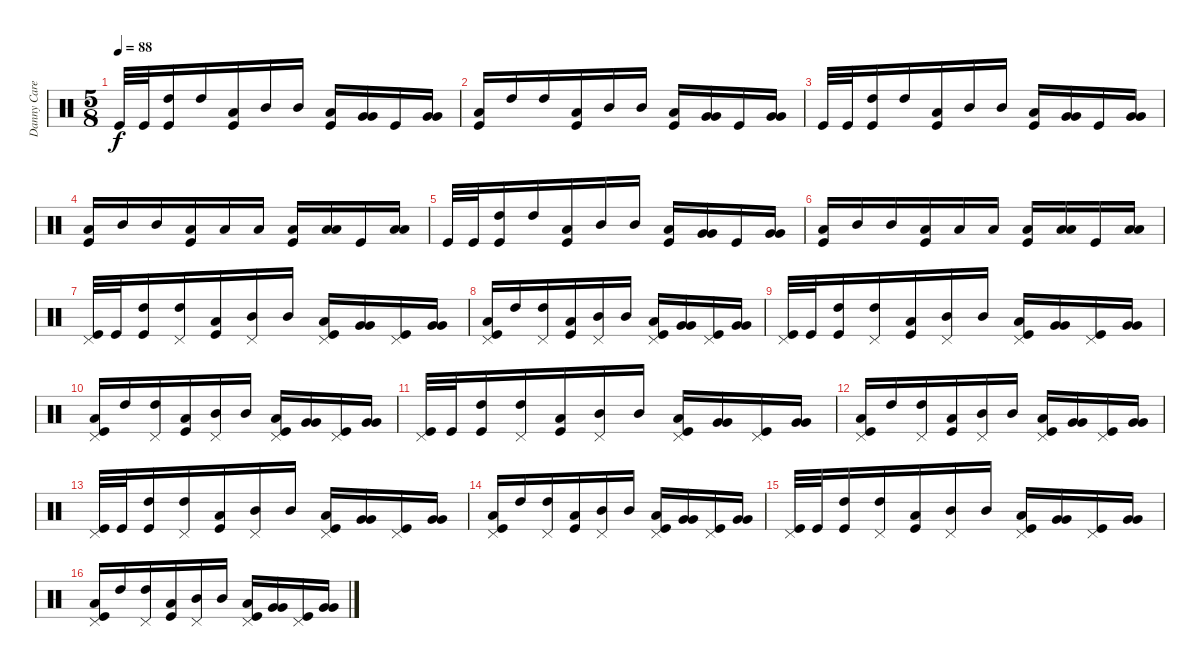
\track ("Danny Carey" "Danny Care") {instrument percussion}
\staff {score}
\articulation defaults
\ts (5 8)
\tempo 88
\clef neutral
\ks c "Kick (hit)".32{dy f} "Kick (hit)".32
("High Tom (hit)" "Kick (hit)").16 "High Tom (hit)".16 ("Low Floor Tom (hit)" "Kick (hit)").16 "Mid Tom (hit)".16 "Mid Tom (hit)".16 ("Low Floor Tom (hit)" "Kick (hit)").16 ("Very Low Tom (hit)" "Very Low Tom (hit)").16 "Kick (hit)".16 ("Very Low Tom (hit)" "Very Low Tom (hit)").16 |
("Low Floor Tom (hit)" "Kick (hit)").16 "High Tom (hit)".16 "High Tom (hit)".16 ("Low Floor Tom (hit)" "Kick (hit)").16 "Mid Tom (hit)".16 "Mid Tom (hit)".16 ("Low Floor Tom (hit)" "Kick (hit)").16 ("Very Low Tom (hit)" "Very Low Tom (hit)").16 "Kick (hit)".16 ("Very Low Tom (hit)" "Very Low Tom (hit)").16 |
"Kick (hit)".32 "Kick (hit)".32 ("High Tom (hit)" "Kick (hit)").16 "High Tom (hit)".16 ("Low Floor Tom (hit)" "Kick (hit)").16 "Mid Tom (hit)".16 "Mid Tom (hit)".16 ("Low Floor Tom (hit)" "Kick (hit)").16 ("Very Low Tom (hit)" "Very Low Tom (hit)").16 "Kick (hit)".16 ("Very Low Tom (hit)" "Very Low Tom (hit)").16 |
("Low Floor Tom (hit)" "Kick (hit)").16 "Mid Tom (hit)".16 "Mid Tom (hit)".16 ("Low Floor Tom (hit)" "Kick (hit)").16 "Low Tom (hit)".16 "Low Tom (hit)".16 ("Low Floor Tom (hit)" "Kick (hit)").16 ("Low Floor Tom (hit)" "Low Floor Tom (hit)").16 "Kick (hit)".16 ("Low Floor Tom (hit)" "Low Floor Tom (hit)").16 |
"Kick (hit)".32 "Kick (hit)".32 ("High Tom (hit)" "Kick (hit)").16 "High Tom (hit)".16 ("Low Floor Tom (hit)" "Kick (hit)").16 "Mid Tom (hit)".16 "Mid Tom (hit)".16 ("Low Floor Tom (hit)" "Kick (hit)").16 ("Very Low Tom (hit)" "Very Low Tom (hit)").16 "Kick (hit)".16 ("Very Low Tom (hit)" "Very Low Tom (hit)").16 |
("Low Floor Tom (hit)" "Kick (hit)").16 "Mid Tom (hit)".16 "Mid Tom (hit)".16 ("Low Floor Tom (hit)" "Kick (hit)").16 "Low Tom (hit)".16 "Low Tom (hit)".16 ("Low Floor Tom (hit)" "Kick (hit)").16 ("Low Floor Tom (hit)" "Low Floor Tom (hit)").16 "Kick (hit)".16 ("Low Floor Tom (hit)" "Low Floor Tom (hit)").16 |
("Pedal Hi-Hat (hit)" "Kick (hit)").32 "Kick (hit)".32 ("High Tom (hit)" "Kick (hit)").16 ("Pedal Hi-Hat (hit)" "High Tom (hit)").16 ("Low Floor Tom (hit)" "Kick (hit)").16 ("Pedal Hi-Hat (hit)" "Mid Tom (hit)").16 "Mid Tom (hit)".16 ("Pedal Hi-Hat (hit)" "Low Floor Tom (hit)" "Kick (hit)").16 ("Very Low Tom (hit)" "Very Low Tom (hit)").16 ("Pedal Hi-Hat (hit)" "Kick (hit)").16 ("Very Low Tom (hit)" "Very Low Tom (hit)").16 |
("Pedal Hi-Hat (hit)" "Low Floor Tom (hit)" "Kick (hit)").16 "High Tom (hit)".16 ("Pedal Hi-Hat (hit)" "High Tom (hit)").16 ("Low Floor Tom (hit)" "Kick (hit)").16 ("Pedal Hi-Hat (hit)" "Mid Tom (hit)").16 "Mid Tom (hit)".16 ("Pedal Hi-Hat (hit)" "Low Floor Tom (hit)" "Kick (hit)").16 ("Very Low Tom (hit)" "Very Low Tom (hit)").16 ("Pedal Hi-Hat (hit)" "Kick (hit)").16 ("Very Low Tom (hit)" "Very Low Tom (hit)").16 |
("Pedal Hi-Hat (hit)" "Kick (hit)").32 "Kick (hit)".32 ("High Tom (hit)" "Kick (hit)").16 ("Pedal Hi-Hat (hit)" "High Tom (hit)").16 ("Low Floor Tom (hit)" "Kick (hit)").16 ("Pedal Hi-Hat (hit)" "Mid Tom (hit)").16 "Mid Tom (hit)".16 ("Pedal Hi-Hat (hit)" "Low Floor Tom (hit)" "Kick (hit)").16 ("Very Low Tom (hit)" "Very Low Tom (hit)").16 ("Pedal Hi-Hat (hit)" "Kick (hit)").16 ("Very Low Tom (hit)" "Very Low Tom (hit)").16 |
("Pedal Hi-Hat (hit)" "Low Floor Tom (hit)" "Kick (hit)").16 "High Tom (hit)".16 ("Pedal Hi-Hat (hit)" "High Tom (hit)").16 ("Low Floor Tom (hit)" "Kick (hit)").16 ("Pedal Hi-Hat (hit)" "Mid Tom (hit)").16 "Mid Tom (hit)".16 ("Pedal Hi-Hat (hit)" "Low Floor Tom (hit)" "Kick (hit)").16 ("Very Low Tom (hit)" "Very Low Tom (hit)").16 ("Pedal Hi-Hat (hit)" "Kick (hit)").16 ("Very Low Tom (hit)" "Very Low Tom (hit)").16 |
("Pedal Hi-Hat (hit)" "Kick (hit)").32 "Kick (hit)".32 ("High Tom (hit)" "Kick (hit)").16 ("Pedal Hi-Hat (hit)" "High Tom (hit)").16 ("Low Floor Tom (hit)" "Kick (hit)").16 ("Pedal Hi-Hat (hit)" "Mid Tom (hit)").16 "Mid Tom (hit)".16 ("Pedal Hi-Hat (hit)" "Low Floor Tom (hit)" "Kick (hit)").16 ("Very Low Tom (hit)" "Very Low Tom (hit)").16 ("Pedal Hi-Hat (hit)" "Kick (hit)").16 ("Very Low Tom (hit)" "Very Low Tom (hit)").16 |
("Pedal Hi-Hat (hit)" "Low Floor Tom (hit)" "Kick (hit)").16 "High Tom (hit)".16 ("Pedal Hi-Hat (hit)" "High Tom (hit)").16 ("Low Floor Tom (hit)" "Kick (hit)").16 ("Pedal Hi-Hat (hit)" "Mid Tom (hit)").16 "Mid Tom (hit)".16 ("Pedal Hi-Hat (hit)" "Low Floor Tom (hit)" "Kick (hit)").16 ("Very Low Tom (hit)" "Very Low Tom (hit)").16 ("Pedal Hi-Hat (hit)" "Kick (hit)").16 ("Very Low Tom (hit)" "Very Low Tom (hit)").16 |
("Pedal Hi-Hat (hit)" "Kick (hit)").32 "Kick (hit)".32 ("High Tom (hit)" "Kick (hit)").16 ("Pedal Hi-Hat (hit)" "High Tom (hit)").16 ("Low Floor Tom (hit)" "Kick (hit)").16 ("Pedal Hi-Hat (hit)" "Mid Tom (hit)").16 "Mid Tom (hit)".16 ("Pedal Hi-Hat (hit)" "Low Floor Tom (hit)" "Kick (hit)").16 ("Very Low Tom (hit)" "Very Low Tom (hit)").16 ("Pedal Hi-Hat (hit)" "Kick (hit)").16 ("Very Low Tom (hit)" "Very Low Tom (hit)").16 |
("Pedal Hi-Hat (hit)" "Low Floor Tom (hit)" "Kick (hit)").16 "High Tom (hit)".16 ("Pedal Hi-Hat (hit)" "High Tom (hit)").16 ("Low Floor Tom (hit)" "Kick (hit)").16 ("Pedal Hi-Hat (hit)" "Mid Tom (hit)").16 "Mid Tom (hit)".16 ("Pedal Hi-Hat (hit)" "Low Floor Tom (hit)" "Kick (hit)").16 ("Very Low Tom (hit)" "Very Low Tom (hit)").16 ("Pedal Hi-Hat (hit)" "Kick (hit)").16 ("Very Low Tom (hit)" "Very Low Tom (hit)").16 |
("Pedal Hi-Hat (hit)" "Kick (hit)").32 "Kick (hit)".32 ("High Tom (hit)" "Kick (hit)").16 ("Pedal Hi-Hat (hit)" "High Tom (hit)").16 ("Low Floor Tom (hit)" "Kick (hit)").16 ("Pedal Hi-Hat (hit)" "Mid Tom (hit)").16 "Mid Tom (hit)".16 ("Pedal Hi-Hat (hit)" "Low Floor Tom (hit)" "Kick (hit)").16 ("Very Low Tom (hit)" "Very Low Tom (hit)").16 ("Pedal Hi-Hat (hit)" "Kick (hit)").16 ("Very Low Tom (hit)" "Very Low Tom (hit)").16 |
("Pedal Hi-Hat (hit)" "Low Floor Tom (hit)" "Kick (hit)").16 "High Tom (hit)".16 ("Pedal Hi-Hat (hit)" "High Tom (hit)").16 ("Low Floor Tom (hit)" "Kick (hit)").16 ("Pedal Hi-Hat (hit)" "Mid Tom (hit)").16 "Mid Tom (hit)".16 ("Pedal Hi-Hat (hit)" "Low Floor Tom (hit)" "Kick (hit)").16 ("Very Low Tom (hit)" "Very Low Tom (hit)").16 ("Pedal Hi-Hat (hit)" "Kick (hit)").16 ("Very Low Tom (hit)" "Very Low Tom (hit)").16
